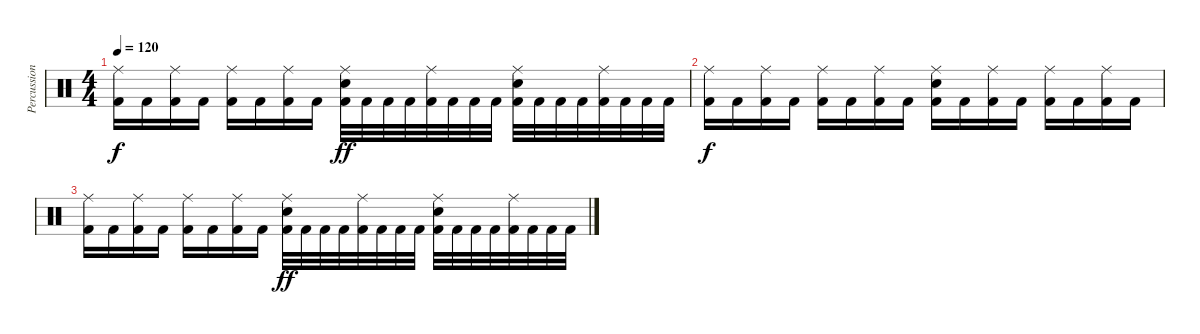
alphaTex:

\track ("Percussion" "Percussion") {instrument percussion}
\staff {score}
\articulation defaults
\ts (4 4)
\tempo 120
\clef neutral
\ks c
("Ride (middle)" "Kick (hit) 2").16{dy f} "Kick (hit) 2".16 ("Ride (middle)" "Kick (hit) 2").16 "Kick (hit) 2".16 ("Ride (middle)" "Kick (hit) 2").16 "Kick (hit) 2".16 ("Ride (middle)" "Kick (hit) 2").16 "Kick (hit) 2".16 ("Ride (middle)" "Electric Snare (hit)" "Kick (hit) 2").32{dy ff} "Kick (hit) 2".32 "Kick (hit) 2".32 "Kick (hit) 2".32 ("Ride (middle)" "Kick (hit) 2").32 "Kick (hit) 2".32 "Kick (hit) 2".32 "Kick (hit) 2".32 ("Ride (middle)" "Electric Snare (hit)" "Kick (hit) 2").32 "Kick (hit) 2".32 "Kick (hit) 2".32 "Kick (hit) 2".32 ("Ride (middle)" "Kick (hit) 2").32 "Kick (hit) 2".32 "Kick (hit) 2".32 "Kick (hit) 2".32 |
("Ride (middle)" "Kick (hit) 2").16{dy f} "Kick (hit) 2".16 ("Ride (middle)" "Kick (hit) 2").16 "Kick (hit) 2".16 ("Ride (middle)" "Kick (hit) 2").16 "Kick (hit) 2".16 ("Ride (middle)" "Kick (hit) 2").16 "Kick (hit) 2".16 ("Ride (middle)" "Electric Snare (hit)" "Kick (hit) 2").16 "Kick (hit) 2".16 ("Ride (middle)" "Kick (hit) 2").16 "Kick (hit) 2".16 ("Ride (middle)" "Kick (hit) 2").16 "Kick (hit) 2".16 ("Ride (middle)" "Kick (hit) 2").16 "Kick (hit) 2".16 |
("Ride (middle)" "Kick (hit) 2").16 "Kick (hit) 2".16 ("Ride (middle)" "Kick (hit) 2").16 "Kick (hit) 2".16 ("Ride (middle)" "Kick (hit) 2").16 "Kick (hit) 2".16 ("Ride (middle)" "Kick (hit) 2").16 "Kick (hit) 2".16 ("Ride (middle)" "Electric Snare (hit)" "Kick (hit) 2").32{dy ff} "Kick (hit) 2".32 "Kick (hit) 2".32 "Kick (hit) 2".32 ("Ride (middle)" "Kick (hit) 2").32 "Kick (hit) 2".32 "Kick (hit) 2".32 "Kick (hit) 2".32 ("Ride (middle)" "Electric Snare (hit)" "Kick (hit) 2").32 "Kick (hit) 2".32 "Kick (hit) 2".32 "Kick (hit) 2".32 ("Ride (middle)" "Kick (hit) 2").32 "Kick (hit) 2".32 "Kick (hit) 2".32 "Kick (hit) 2".32
